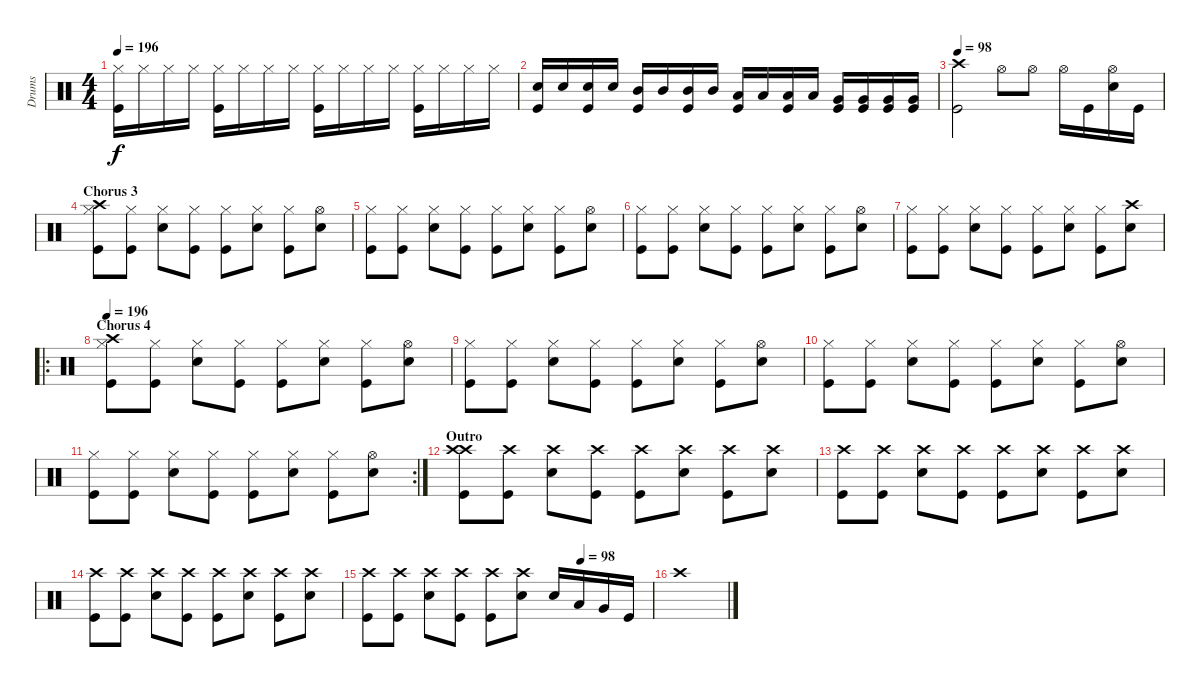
\track ("Drums" "Drums") {instrument percussion}
\staff {score}
\articulation defaults
\ts (4 4)
\tempo 196
\clef neutral
\ks c
("Hi-Hat (closed)" "Kick (hit)").16{dy f} "Hi-Hat (closed)".16 "Hi-Hat (closed)".16 "Hi-Hat (closed)".16 ("Hi-Hat (closed)" "Kick (hit)").16 "Hi-Hat (closed)".16 "Hi-Hat (closed)".16 "Hi-Hat (closed)".16 ("Hi-Hat (closed)" "Kick (hit)").16 "Hi-Hat (closed)".16 "Hi-Hat (closed)".16 "Hi-Hat (closed)".16 ("Hi-Hat (closed)" "Kick (hit)").16 "Hi-Hat (closed)".16 "Hi-Hat (closed)".16 "Hi-Hat (closed)".16 |
("Electric Snare (hit)" "Kick (hit)").16 "Electric Snare (hit)".16 ("Electric Snare (hit)" "Kick (hit)").16 "Electric Snare (hit)".16 ("Mid Tom (hit)" "Kick (hit)").16 "Mid Tom (hit)".16 ("Mid Tom (hit)" "Kick (hit)").16 "Mid Tom (hit)".16 ("Low Tom (hit)" "Kick (hit)").16 "Low Tom (hit)".16 ("Low Tom (hit)" "Kick (hit)").16 "Low Tom (hit)".16 ("Very Low Tom (hit)" "Kick (hit)").16 ("Very Low Tom (hit)" "Kick (hit)").16 ("Very Low Tom (hit)" "Kick (hit)").16 ("Very Low Tom (hit)" "Kick (hit)").16 |
\tempo 98
("Crash high (hit)" "Kick (hit)").2 "Hi-Hat (open)".8 "Hi-Hat (open)".8 "Hi-Hat (open)".16 "Kick (hit)".16 ("Electric Snare (hit)" "Hi-Hat (open)").16 "Kick (hit)".16 |
\section ("" "Chorus 3")
("Hi-Hat (closed)" "Kick (hit)" "Crash high (hit)").8 ("Hi-Hat (closed)" "Kick (hit)").8 ("Hi-Hat (closed)" "Electric Snare (hit)").8 ("Hi-Hat (closed)" "Kick (hit)").8 ("Hi-Hat (closed)" "Kick (hit)").8 ("Hi-Hat (closed)" "Electric Snare (hit)").8 ("Hi-Hat (closed)" "Kick (hit)").8 ("Hi-Hat (open)" "Electric Snare (hit)").8 |
("Hi-Hat (closed)" "Kick (hit)").8 ("Hi-Hat (closed)" "Kick (hit)").8 ("Hi-Hat (closed)" "Electric Snare (hit)").8 ("Hi-Hat (closed)" "Kick (hit)").8 ("Hi-Hat (closed)" "Kick (hit)").8 ("Hi-Hat (closed)" "Electric Snare (hit)").8 ("Hi-Hat (closed)" "Kick (hit)").8 ("Hi-Hat (open)" "Electric Snare (hit)").8 |
("Hi-Hat (closed)" "Kick (hit)").8 ("Hi-Hat (closed)" "Kick (hit)").8 ("Hi-Hat (closed)" "Electric Snare (hit)").8 ("Hi-Hat (closed)" "Kick (hit)").8 ("Hi-Hat (closed)" "Kick (hit)").8 ("Hi-Hat (closed)" "Electric Snare (hit)").8 ("Hi-Hat (closed)" "Kick (hit)").8 ("Hi-Hat (open)" "Electric Snare (hit)").8 |
("Hi-Hat (closed)" "Kick (hit)").8 ("Hi-Hat (closed)" "Kick (hit)").8 ("Hi-Hat (closed)" "Electric Snare (hit)").8 ("Hi-Hat (closed)" "Kick (hit)").8 ("Hi-Hat (closed)" "Kick (hit)").8 ("Hi-Hat (closed)" "Electric Snare (hit)").8 ("Hi-Hat (closed)" "Kick (hit)").8 ("Crash high (hit)" "Electric Snare (hit)").8 |
\ro
\section ("" "Chorus 4")
\tempo 196
("Hi-Hat (closed)" "Kick (hit)" "Crash high (hit)").8 ("Hi-Hat (closed)" "Kick (hit)").8 ("Hi-Hat (closed)" "Electric Snare (hit)").8 ("Hi-Hat (closed)" "Kick (hit)").8 ("Hi-Hat (closed)" "Kick (hit)").8 ("Hi-Hat (closed)" "Electric Snare (hit)").8 ("Hi-Hat (closed)" "Kick (hit)").8 ("Hi-Hat (open)" "Electric Snare (hit)").8 |
("Hi-Hat (closed)" "Kick (hit)").8 ("Hi-Hat (closed)" "Kick (hit)").8 ("Hi-Hat (closed)" "Electric Snare (hit)").8 ("Hi-Hat (closed)" "Kick (hit)").8 ("Hi-Hat (closed)" "Kick (hit)").8 ("Hi-Hat (closed)" "Electric Snare (hit)").8 ("Hi-Hat (closed)" "Kick (hit)").8 ("Hi-Hat (open)" "Electric Snare (hit)").8 |
("Hi-Hat (closed)" "Kick (hit)").8 ("Hi-Hat (closed)" "Kick (hit)").8 ("Hi-Hat (closed)" "Electric Snare (hit)").8 ("Hi-Hat (closed)" "Kick (hit)").8 ("Hi-Hat (closed)" "Kick (hit)").8 ("Hi-Hat (closed)" "Electric Snare (hit)").8 ("Hi-Hat (closed)" "Kick (hit)").8 ("Hi-Hat (open)" "Electric Snare (hit)").8 |
\rc 2
("Hi-Hat (closed)" "Kick (hit)").8 ("Hi-Hat (closed)" "Kick (hit)").8 ("Hi-Hat (closed)" "Electric Snare (hit)").8 ("Hi-Hat (closed)" "Kick (hit)").8 ("Hi-Hat (closed)" "Kick (hit)").8 ("Hi-Hat (closed)" "Electric Snare (hit)").8 ("Hi-Hat (closed)" "Kick (hit)").8 ("Hi-Hat (open)" "Electric Snare (hit)").8 |
\section ("" "Outro")
("Crash high (hit)" "Kick (hit)" "Crash high (hit)").8 ("Crash high (hit)" "Kick (hit)").8 ("Crash high (hit)" "Electric Snare (hit)").8 ("Crash high (hit)" "Kick (hit)").8 ("Crash high (hit)" "Kick (hit)").8 ("Crash high (hit)" "Electric Snare (hit)").8 ("Crash high (hit)" "Kick (hit)").8 ("Crash high (hit)" "Electric Snare (hit)").8 |
("Crash high (hit)" "Kick (hit)").8 ("Crash high (hit)" "Kick (hit)").8 ("Crash high (hit)" "Electric Snare (hit)").8 ("Crash high (hit)" "Kick (hit)").8 ("Crash high (hit)" "Kick (hit)").8 ("Crash high (hit)" "Electric Snare (hit)").8 ("Crash high (hit)" "Kick (hit)").8 ("Crash high (hit)" "Electric Snare (hit)").8 |
("Crash high (hit)" "Kick (hit)").8 ("Crash high (hit)" "Kick (hit)").8 ("Crash high (hit)" "Electric Snare (hit)").8 ("Crash high (hit)" "Kick (hit)").8 ("Crash high (hit)" "Kick (hit)").8 ("Crash high (hit)" "Electric Snare (hit)").8 ("Crash high (hit)" "Kick (hit)").8 ("Crash high (hit)" "Electric Snare (hit)").8 |
\tempo (98 0.75)
("Crash high (hit)" "Kick (hit)").8 ("Crash high (hit)" "Kick (hit)").8 ("Crash high (hit)" "Electric Snare (hit)").8 ("Crash high (hit)" "Kick (hit)").8 ("Crash high (hit)" "Kick (hit)").8 ("Crash high (hit)" "Electric Snare (hit)").8 "Electric Snare (hit)".16 "Low Tom (hit)".16 "Very Low Tom (hit)".16 "Kick (hit)".16 |
"Crash high (hit)".1
